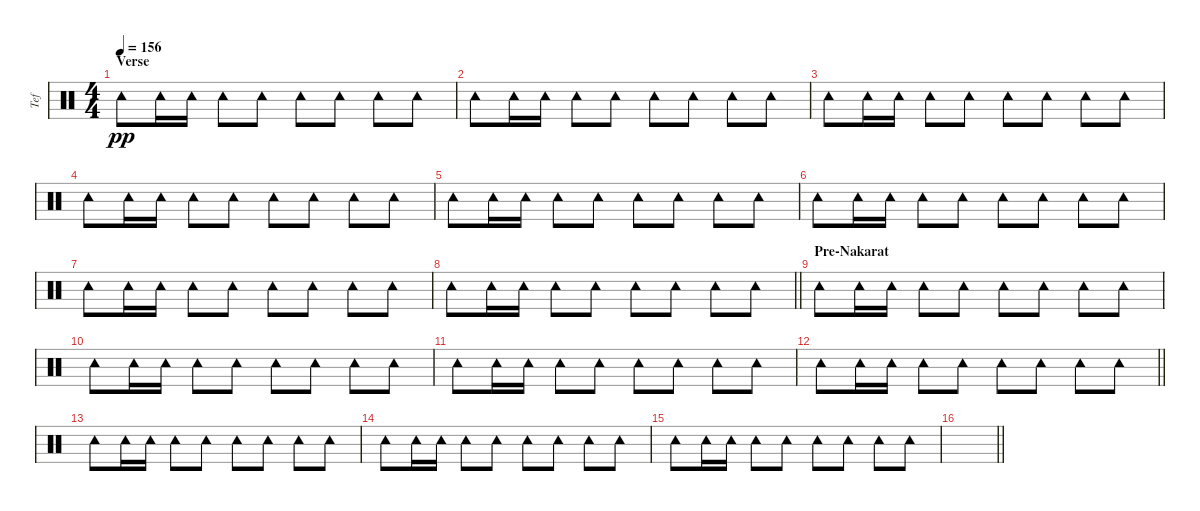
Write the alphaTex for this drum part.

\track ("Tef" "Tef") {instrument percussion}
\staff {score}
\articulation defaults
\ts (4 4)
\section ("" "Verse")
\tempo 156
\clef neutral
\ks c "Tambourine (hit)".8{dy pp} "Tambourine (hit)".16 "Tambourine (hit)".16 "Tambourine (hit)".8 "Tambourine (hit)".8 "Tambourine (hit)".8 "Tambourine (hit)".8 "Tambourine (hit)".8 "Tambourine (hit)".8
|
"Tambourine (hit)".8 "Tambourine (hit)".16 "Tambourine (hit)".16 "Tambourine (hit)".8 "Tambourine (hit)".8 "Tambourine (hit)".8 "Tambourine (hit)".8 "Tambourine (hit)".8 "Tambourine (hit)".8 |
"Tambourine (hit)".8 "Tambourine (hit)".16 "Tambourine (hit)".16 "Tambourine (hit)".8 "Tambourine (hit)".8 "Tambourine (hit)".8 "Tambourine (hit)".8 "Tambourine (hit)".8 "Tambourine (hit)".8 |
"Tambourine (hit)".8 "Tambourine (hit)".16 "Tambourine (hit)".16 "Tambourine (hit)".8 "Tambourine (hit)".8 "Tambourine (hit)".8 "Tambourine (hit)".8 "Tambourine (hit)".8 "Tambourine (hit)".8 |
"Tambourine (hit)".8 "Tambourine (hit)".16 "Tambourine (hit)".16 "Tambourine (hit)".8 "Tambourine (hit)".8 "Tambourine (hit)".8 "Tambourine (hit)".8 "Tambourine (hit)".8 "Tambourine (hit)".8 |
"Tambourine (hit)".8 "Tambourine (hit)".16 "Tambourine (hit)".16 "Tambourine (hit)".8 "Tambourine (hit)".8 "Tambourine (hit)".8 "Tambourine (hit)".8 "Tambourine (hit)".8 "Tambourine (hit)".8 |
"Tambourine (hit)".8 "Tambourine (hit)".16 "Tambourine (hit)".16 "Tambourine (hit)".8 "Tambourine (hit)".8 "Tambourine (hit)".8 "Tambourine (hit)".8 "Tambourine (hit)".8 "Tambourine (hit)".8 |
\barLineRight lightlight "Tambourine (hit)".8 "Tambourine (hit)".16 "Tambourine (hit)".16 "Tambourine (hit)".8 "Tambourine (hit)".8 "Tambourine (hit)".8 "Tambourine (hit)".8 "Tambourine (hit)".8 "Tambourine (hit)".8
|
\section ("" "Pre-Nakarat")
"Tambourine (hit)".8 "Tambourine (hit)".16 "Tambourine (hit)".16 "Tambourine (hit)".8 "Tambourine (hit)".8 "Tambourine (hit)".8 "Tambourine (hit)".8 "Tambourine (hit)".8 "Tambourine (hit)".8 |
"Tambourine (hit)".8 "Tambourine (hit)".16 "Tambourine (hit)".16 "Tambourine (hit)".8 "Tambourine (hit)".8 "Tambourine (hit)".8 "Tambourine (hit)".8 "Tambourine (hit)".8 "Tambourine (hit)".8 |
"Tambourine (hit)".8 "Tambourine (hit)".16 "Tambourine (hit)".16 "Tambourine (hit)".8 "Tambourine (hit)".8 "Tambourine (hit)".8 "Tambourine (hit)".8 "Tambourine (hit)".8 "Tambourine (hit)".8 |
\barLineRight lightlight "Tambourine (hit)".8 "Tambourine (hit)".16 "Tambourine (hit)".16 "Tambourine (hit)".8 "Tambourine (hit)".8 "Tambourine (hit)".8 "Tambourine (hit)".8 "Tambourine (hit)".8 "Tambourine (hit)".8
|
"Tambourine (hit)".8 "Tambourine (hit)".16 "Tambourine (hit)".16 "Tambourine (hit)".8 "Tambourine (hit)".8 "Tambourine (hit)".8 "Tambourine (hit)".8 "Tambourine (hit)".8 "Tambourine (hit)".8 |
"Tambourine (hit)".8 "Tambourine (hit)".16 "Tambourine (hit)".16 "Tambourine (hit)".8 "Tambourine (hit)".8 "Tambourine (hit)".8 "Tambourine (hit)".8 "Tambourine (hit)".8 "Tambourine (hit)".8 |
"Tambourine (hit)".8 "Tambourine (hit)".16 "Tambourine (hit)".16 "Tambourine (hit)".8 "Tambourine (hit)".8 "Tambourine (hit)".8 "Tambourine (hit)".8 "Tambourine (hit)".8 "Tambourine (hit)".8 |
\barLineRight lightlight
